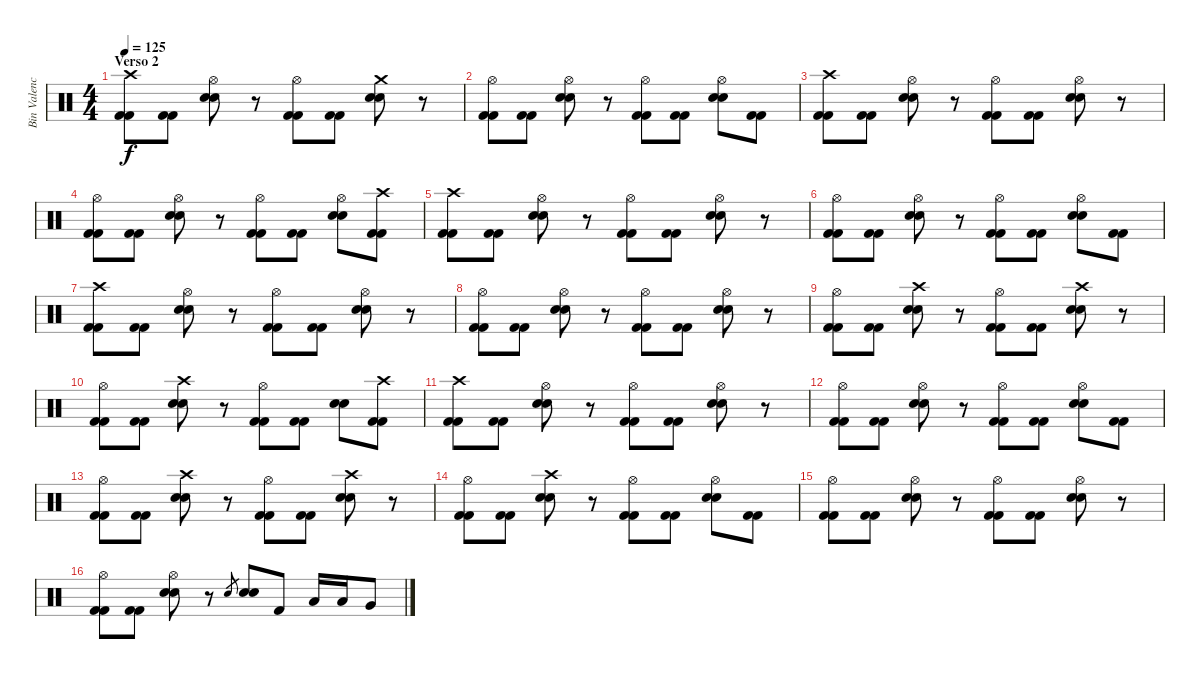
\track ("Bin Valencia (Bateria)" "Bin Valenc") {instrument percussion}
\staff {score}
\articulation defaults
\ts (4 4)
\section ("" "Verso 2")
\tempo 125
\clef neutral
\ks c
("Crash high (hit)" "Kick (hit) 2" "Kick (hit) 2").8{dy f} ("Kick (hit) 2" "Kick (hit) 2").8 ("Hi-Hat (open)" "Snare (hit) 2" "Snare (hit) 2").8 r.8 ("Hi-Hat (open)" "Kick (hit) 2" "Kick (hit) 2").8 ("Kick (hit) 2" "Kick (hit) 2").8 ("Crash medium (hit)" "Snare (hit) 2" "Snare (hit) 2").8 r.8 |
("Hi-Hat (open)" "Kick (hit) 2" "Kick (hit) 2").8 ("Kick (hit) 2" "Kick (hit) 2").8 ("Hi-Hat (open)" "Snare (hit) 2" "Snare (hit) 2").8 r.8 ("Hi-Hat (open)" "Kick (hit) 2" "Kick (hit) 2").8 ("Kick (hit) 2" "Kick (hit) 2").8 ("Hi-Hat (open)" "Snare (hit) 2" "Snare (hit) 2").8 ("Kick (hit) 2" "Kick (hit) 2").8 |
("Crash high (hit)" "Kick (hit) 2" "Kick (hit) 2").8 ("Kick (hit) 2" "Kick (hit) 2").8 ("Hi-Hat (open)" "Snare (hit) 2" "Snare (hit) 2").8 r.8 ("Hi-Hat (open)" "Kick (hit) 2" "Kick (hit) 2").8 ("Kick (hit) 2" "Kick (hit) 2").8 ("Hi-Hat (open)" "Snare (hit) 2" "Snare (hit) 2").8 r.8 |
("Hi-Hat (open)" "Kick (hit) 2" "Kick (hit) 2").8 ("Kick (hit) 2" "Kick (hit) 2").8 ("Hi-Hat (open)" "Snare (hit) 2" "Snare (hit) 2").8 r.8 ("Hi-Hat (open)" "Kick (hit) 2" "Kick (hit) 2").8 ("Kick (hit) 2" "Kick (hit) 2").8 ("Hi-Hat (open)" "Snare (hit) 2" "Snare (hit) 2").8 ("Crash high (hit)" "Kick (hit) 2" "Kick (hit) 2").8 |
("Crash high (hit)" "Kick (hit) 2" "Kick (hit) 2").8 ("Kick (hit) 2" "Kick (hit) 2").8 ("Hi-Hat (open)" "Snare (hit) 2" "Snare (hit) 2").8 r.8 ("Hi-Hat (open)" "Kick (hit) 2" "Kick (hit) 2").8 ("Kick (hit) 2" "Kick (hit) 2").8 ("Hi-Hat (open)" "Snare (hit) 2" "Snare (hit) 2").8 r.8 |
("Hi-Hat (open)" "Kick (hit) 2" "Kick (hit) 2").8 ("Kick (hit) 2" "Kick (hit) 2").8 ("Hi-Hat (open)" "Snare (hit) 2" "Snare (hit) 2").8 r.8 ("Hi-Hat (open)" "Kick (hit) 2" "Kick (hit) 2").8 ("Kick (hit) 2" "Kick (hit) 2").8 ("Hi-Hat (open)" "Snare (hit) 2" "Snare (hit) 2").8 ("Kick (hit) 2" "Kick (hit) 2").8 |
("Crash high (hit)" "Kick (hit) 2" "Kick (hit) 2").8 ("Kick (hit) 2" "Kick (hit) 2").8 ("Hi-Hat (open)" "Snare (hit) 2" "Snare (hit) 2").8 r.8 ("Hi-Hat (open)" "Kick (hit) 2" "Kick (hit) 2").8 ("Kick (hit) 2" "Kick (hit) 2").8 ("Hi-Hat (open)" "Snare (hit) 2" "Snare (hit) 2").8 r.8 |
("Hi-Hat (open)" "Kick (hit) 2" "Kick (hit) 2").8 ("Kick (hit) 2" "Kick (hit) 2").8 ("Hi-Hat (open)" "Snare (hit) 2" "Snare (hit) 2").8 r.8 ("Hi-Hat (open)" "Kick (hit) 2" "Kick (hit) 2").8 ("Kick (hit) 2" "Kick (hit) 2").8 ("Hi-Hat (open)" "Snare (hit) 2" "Snare (hit) 2").8 r.8 |
("Hi-Hat (open)" "Kick (hit) 2" "Kick (hit) 2").8 ("Kick (hit) 2" "Kick (hit) 2").8 ("Crash high (hit)" "Snare (hit) 2" "Snare (hit) 2").8 r.8 ("Hi-Hat (open)" "Kick (hit) 2" "Kick (hit) 2").8 ("Kick (hit) 2" "Kick (hit) 2").8 ("Crash high (hit)" "Snare (hit) 2" "Snare (hit) 2").8 r.8 |
("Hi-Hat (open)" "Kick (hit) 2" "Kick (hit) 2").8 ("Kick (hit) 2" "Kick (hit) 2").8 ("Crash high (hit)" "Snare (hit) 2" "Snare (hit) 2").8 r.8 ("Hi-Hat (open)" "Kick (hit) 2" "Kick (hit) 2").8 ("Kick (hit) 2" "Kick (hit) 2").8 ("Snare (hit) 2" "Snare (hit) 2").8 ("Crash high (hit)" "Kick (hit) 2" "Kick (hit) 2").8 |
("Crash high (hit)" "Kick (hit) 2" "Kick (hit) 2").8 ("Kick (hit) 2" "Kick (hit) 2").8 ("Hi-Hat (open)" "Snare (hit) 2" "Snare (hit) 2").8 r.8 ("Hi-Hat (open)" "Kick (hit) 2" "Kick (hit) 2").8 ("Kick (hit) 2" "Kick (hit) 2").8 ("Hi-Hat (open)" "Snare (hit) 2" "Snare (hit) 2").8 r.8 |
("Hi-Hat (open)" "Kick (hit) 2" "Kick (hit) 2").8 ("Kick (hit) 2" "Kick (hit) 2").8 ("Hi-Hat (open)" "Snare (hit) 2" "Snare (hit) 2").8 r.8 ("Hi-Hat (open)" "Kick (hit) 2" "Kick (hit) 2").8 ("Kick (hit) 2" "Kick (hit) 2").8 ("Hi-Hat (open)" "Snare (hit) 2" "Snare (hit) 2").8 ("Kick (hit) 2" "Kick (hit) 2").8 |
("Hi-Hat (open)" "Kick (hit) 2" "Kick (hit) 2").8 ("Kick (hit) 2" "Kick (hit) 2").8 ("Crash high (hit)" "Snare (hit) 2" "Snare (hit) 2").8 r.8 ("Hi-Hat (open)" "Kick (hit) 2" "Kick (hit) 2").8 ("Kick (hit) 2" "Kick (hit) 2").8 ("Crash high (hit)" "Snare (hit) 2" "Snare (hit) 2").8 r.8 |
("Hi-Hat (open)" "Kick (hit) 2" "Kick (hit) 2").8 ("Kick (hit) 2" "Kick (hit) 2").8 ("Crash high (hit)" "Snare (hit) 2" "Snare (hit) 2").8 r.8 ("Hi-Hat (open)" "Kick (hit) 2" "Kick (hit) 2").8 ("Kick (hit) 2" "Kick (hit) 2").8 ("Hi-Hat (open)" "Snare (hit) 2" "Snare (hit) 2").8 ("Kick (hit) 2" "Kick (hit) 2").8 |
("Hi-Hat (open)" "Kick (hit) 2" "Kick (hit) 2").8 ("Kick (hit) 2" "Kick (hit) 2").8 ("Hi-Hat (open)" "Snare (hit) 2" "Snare (hit) 2").8 r.8 ("Hi-Hat (open)" "Kick (hit) 2" "Kick (hit) 2").8 ("Kick (hit) 2" "Kick (hit) 2").8 ("Hi-Hat (open)" "Snare (hit) 2" "Snare (hit) 2").8 r.8 |
("Hi-Hat (open)" "Kick (hit) 2" "Kick (hit) 2").8 ("Kick (hit) 2" "Kick (hit) 2").8 ("Hi-Hat (open)" "Snare (hit) 2" "Snare (hit) 2").8 r.8 "Snare (hit) 2".8{gr} ("Snare (hit) 2" "Snare (hit) 2").8 "Kick (hit) 2".8 "Low Tom (hit)".16 "Low Tom (hit)".16 "Very Low Tom (hit)".8
